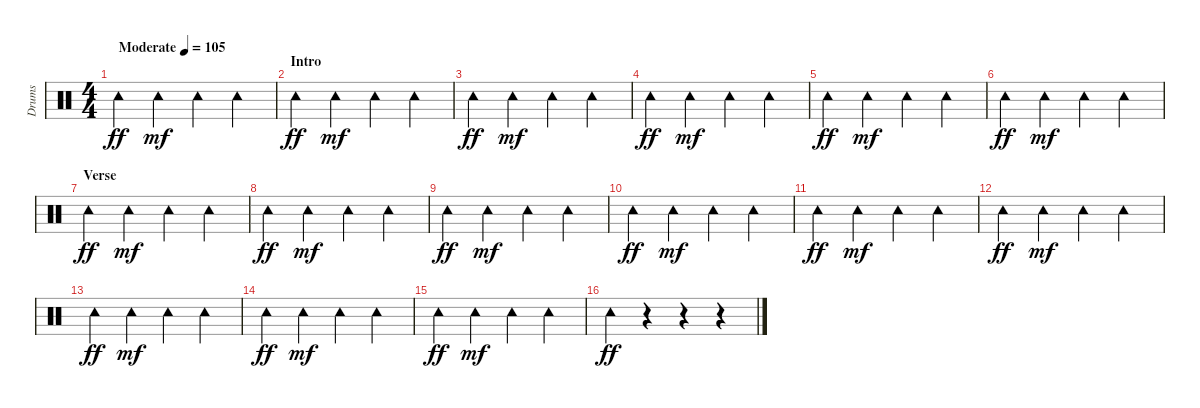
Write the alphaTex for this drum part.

\track ("Drums" "Drums") {instrument percussion}
\staff {score}
\articulation defaults
\ts (4 4)
\tempo (105 "Moderate")
\clef neutral
\ks c "Tambourine (hit)".4{dy ff} "Tambourine (hit)".4{dy mf} "Tambourine (hit)".4 "Tambourine (hit)".4
|
\section ("" "Intro")
"Tambourine (hit)".4{dy ff} "Tambourine (hit)".4{dy mf} "Tambourine (hit)".4 "Tambourine (hit)".4 |
"Tambourine (hit)".4{dy ff} "Tambourine (hit)".4{dy mf} "Tambourine (hit)".4 "Tambourine (hit)".4 |
"Tambourine (hit)".4{dy ff} "Tambourine (hit)".4{dy mf} "Tambourine (hit)".4 "Tambourine (hit)".4 |
"Tambourine (hit)".4{dy ff} "Tambourine (hit)".4{dy mf} "Tambourine (hit)".4 "Tambourine (hit)".4 |
"Tambourine (hit)".4{dy ff} "Tambourine (hit)".4{dy mf} "Tambourine (hit)".4 "Tambourine (hit)".4 |
\section ("" "Verse")
"Tambourine (hit)".4{dy ff} "Tambourine (hit)".4{dy mf} "Tambourine (hit)".4 "Tambourine (hit)".4 |
"Tambourine (hit)".4{dy ff} "Tambourine (hit)".4{dy mf} "Tambourine (hit)".4 "Tambourine (hit)".4 |
"Tambourine (hit)".4{dy ff} "Tambourine (hit)".4{dy mf} "Tambourine (hit)".4 "Tambourine (hit)".4 |
"Tambourine (hit)".4{dy ff} "Tambourine (hit)".4{dy mf} "Tambourine (hit)".4 "Tambourine (hit)".4 |
"Tambourine (hit)".4{dy ff} "Tambourine (hit)".4{dy mf} "Tambourine (hit)".4 "Tambourine (hit)".4 |
"Tambourine (hit)".4{dy ff} "Tambourine (hit)".4{dy mf} "Tambourine (hit)".4 "Tambourine (hit)".4 |
"Tambourine (hit)".4{dy ff} "Tambourine (hit)".4{dy mf} "Tambourine (hit)".4 "Tambourine (hit)".4 |
"Tambourine (hit)".4{dy ff} "Tambourine (hit)".4{dy mf} "Tambourine (hit)".4 "Tambourine (hit)".4 |
"Tambourine (hit)".4{dy ff} "Tambourine (hit)".4{dy mf} "Tambourine (hit)".4 "Tambourine (hit)".4 |
"Tambourine (hit)".4{dy ff} r.4 r.4 r.4
